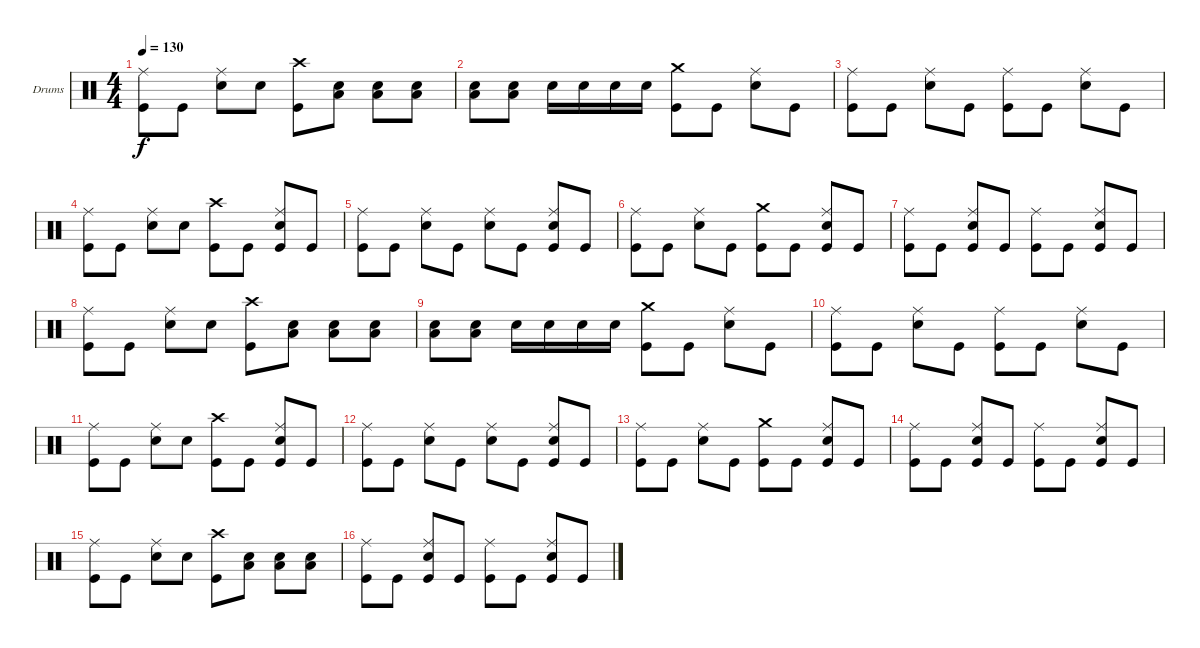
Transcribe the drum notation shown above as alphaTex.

\bracketExtendMode groupsimilarinstruments
\firstSystemTrackNameOrientation horizontal
\otherSystemsTrackNameOrientation horizontal
\track ("Drumkit" "Drums") {instrument percussion}
\staff {score}
\articulation defaults
\ts (4 4)
\tempo 130
\clef neutral
\ks c
("Kick (hit)" "Ride (middle)").8{dy f} "Kick (hit)".8 ("Ride (middle)" "Snare (hit) 2").8 "Snare (hit) 2".8 ("Kick (hit)" "Crash high (hit)").8 ("Snare (hit) 2" "Low Tom (hit)").8 ("Low Tom (hit)" "Snare (hit) 2").8 ("Snare (hit) 2" "Low Tom (hit)").8 |
("Snare (hit) 2" "Low Tom (hit)").8 ("Low Tom (hit)" "Snare (hit) 2").8 "Snare (hit) 2".16 "Snare (hit) 2".16 "Snare (hit) 2".16 "Snare (hit) 2".16 ("Crash medium (hit)" "Kick (hit)").8 "Kick (hit)".8 ("Ride (middle)" "Snare (hit) 2").8 "Kick (hit)".8 |
("Ride (middle)" "Kick (hit)").8 "Kick (hit)".8 ("Ride (middle)" "Snare (hit) 2").8 "Kick (hit)".8 ("Kick (hit)" "Ride (middle)").8 "Kick (hit)".8 ("Ride (middle)" "Snare (hit) 2").8 "Kick (hit)".8 |
("Kick (hit)" "Ride (middle)").8 "Kick (hit)".8 ("Snare (hit) 2" "Ride (middle)").8 "Snare (hit) 2".8 ("Crash high (hit)" "Kick (hit)").8 "Kick (hit)".8 ("Ride (middle)" "Kick (hit)" "Snare (hit) 2").8 "Kick (hit)".8 |
("Kick (hit)" "Ride (middle)").8 "Kick (hit)".8 ("Ride (middle)" "Snare (hit) 2").8 "Kick (hit)".8 ("Ride (middle)" "Snare (hit) 2").8 "Kick (hit)".8 ("Ride (middle)" "Snare (hit) 2" "Kick (hit)").8 "Kick (hit)".8 |
("Ride (middle)" "Kick (hit)").8 "Kick (hit)".8 ("Ride (middle)" "Snare (hit) 2").8 "Kick (hit)".8 ("Kick (hit)" "Crash medium (hit)").8 "Kick (hit)".8 ("Ride (middle)" "Kick (hit)" "Snare (hit) 2").8 "Kick (hit)".8 |
("Ride (middle)" "Kick (hit)").8 "Kick (hit)".8 ("Kick (hit)" "Snare (hit) 2" "Ride (middle)").8 "Kick (hit)".8 ("Ride (middle)" "Kick (hit)").8 "Kick (hit)".8 ("Kick (hit)" "Snare (hit) 2" "Ride (middle)").8 "Kick (hit)".8 |
("Kick (hit)" "Ride (middle)").8 "Kick (hit)".8 ("Ride (middle)" "Snare (hit) 2").8 "Snare (hit) 2".8 ("Kick (hit)" "Crash high (hit)").8 ("Snare (hit) 2" "Low Tom (hit)").8 ("Low Tom (hit)" "Snare (hit) 2").8 ("Snare (hit) 2" "Low Tom (hit)").8 |
("Snare (hit) 2" "Low Tom (hit)").8 ("Low Tom (hit)" "Snare (hit) 2").8 "Snare (hit) 2".16 "Snare (hit) 2".16 "Snare (hit) 2".16 "Snare (hit) 2".16 ("Crash medium (hit)" "Kick (hit)").8 "Kick (hit)".8 ("Ride (middle)" "Snare (hit) 2").8 "Kick (hit)".8 |
("Ride (middle)" "Kick (hit)").8 "Kick (hit)".8 ("Ride (middle)" "Snare (hit) 2").8 "Kick (hit)".8 ("Kick (hit)" "Ride (middle)").8 "Kick (hit)".8 ("Ride (middle)" "Snare (hit) 2").8 "Kick (hit)".8 |
("Kick (hit)" "Ride (middle)").8 "Kick (hit)".8 ("Snare (hit) 2" "Ride (middle)").8 "Snare (hit) 2".8 ("Crash high (hit)" "Kick (hit)").8 "Kick (hit)".8 ("Ride (middle)" "Kick (hit)" "Snare (hit) 2").8 "Kick (hit)".8 |
("Kick (hit)" "Ride (middle)").8 "Kick (hit)".8 ("Ride (middle)" "Snare (hit) 2").8 "Kick (hit)".8 ("Ride (middle)" "Snare (hit) 2").8 "Kick (hit)".8 ("Ride (middle)" "Snare (hit) 2" "Kick (hit)").8 "Kick (hit)".8 |
("Ride (middle)" "Kick (hit)").8 "Kick (hit)".8 ("Ride (middle)" "Snare (hit) 2").8 "Kick (hit)".8 ("Kick (hit)" "Crash medium (hit)").8 "Kick (hit)".8 ("Ride (middle)" "Kick (hit)" "Snare (hit) 2").8 "Kick (hit)".8 |
("Ride (middle)" "Kick (hit)").8 "Kick (hit)".8 ("Kick (hit)" "Snare (hit) 2" "Ride (middle)").8 "Kick (hit)".8 ("Ride (middle)" "Kick (hit)").8 "Kick (hit)".8 ("Kick (hit)" "Snare (hit) 2" "Ride (middle)").8 "Kick (hit)".8 |
("Kick (hit)" "Ride (middle)").8 "Kick (hit)".8 ("Ride (middle)" "Snare (hit) 2").8 "Snare (hit) 2".8 ("Kick (hit)" "Crash high (hit)").8 ("Snare (hit) 2" "Low Tom (hit)").8 ("Low Tom (hit)" "Snare (hit) 2").8 ("Snare (hit) 2" "Low Tom (hit)").8 |
("Ride (middle)" "Kick (hit)").8 "Kick (hit)".8 ("Kick (hit)" "Snare (hit) 2" "Ride (middle)").8 "Kick (hit)".8 ("Ride (middle)" "Kick (hit)").8 "Kick (hit)".8 ("Kick (hit)" "Snare (hit) 2" "Ride (middle)").8 "Kick (hit)".8
